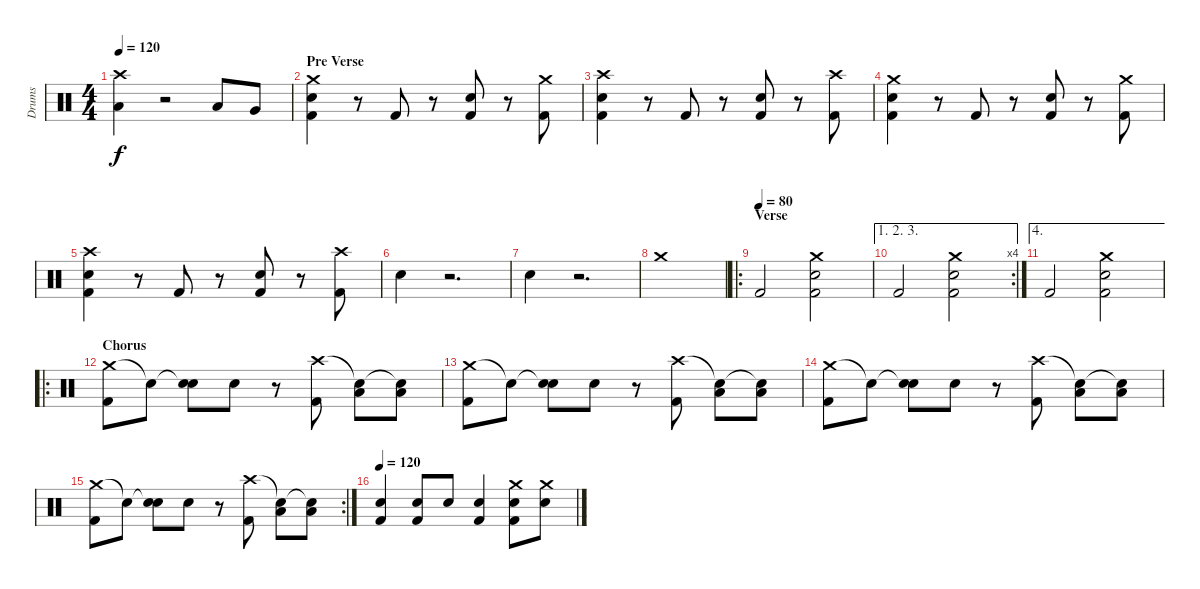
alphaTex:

\track ("Drums" "Drums") {instrument percussion}
\staff {score}
\articulation defaults
\ts (4 4)
\tempo 120
\clef neutral
\ks c
("Crash high (hit)" "Low Floor Tom (hit)").4{dy f} r.2 "Low Tom (hit)".8 "Very Low Tom (hit)".8 |
\section ("" "Pre Verse")
("Crash medium (hit)" "Snare (hit) 2" "Kick (hit) 2").4 r.8 "Kick (hit) 2".8 r.8 ("Snare (hit) 2" "Kick (hit) 2").8 r.8 ("Crash medium (hit)" "Kick (hit) 2").8 |
("Crash high (hit)" "Snare (hit) 2" "Kick (hit) 2").4 r.8 "Kick (hit) 2".8 r.8 ("Snare (hit) 2" "Kick (hit) 2").8 r.8 ("Crash high (hit)" "Kick (hit) 2").8 |
("Crash medium (hit)" "Snare (hit) 2" "Kick (hit) 2").4 r.8 "Kick (hit) 2".8 r.8 ("Snare (hit) 2" "Kick (hit) 2").8 r.8 ("Crash medium (hit)" "Kick (hit) 2").8 |
("Crash high (hit)" "Snare (hit) 2" "Kick (hit) 2").4 r.8 "Kick (hit) 2".8 r.8 ("Snare (hit) 2" "Kick (hit) 2").8 r.8 ("Crash high (hit)" "Kick (hit) 2").8 |
"Snare (hit) 2".4 r.2{d} |
"Snare (hit) 2".4 r.2{d} |
"Crash medium (hit)".1 |
\ro
\section ("" "Verse")
\tempo (80)
"Kick (hit) 2".2 ("Crash medium (hit)" "Snare (hit) 2" "Kick (hit) 2").2 |
\ae (1 2 3)
\rc 4 "Kick (hit) 2".2
("Crash medium (hit)" "Snare (hit) 2" "Kick (hit) 2").2 |
\ae 4 "Kick (hit) 2".2
("Crash medium (hit)" "Snare (hit) 2" "Kick (hit) 2").2 |
\ro
\section ("" "Chorus")
("Crash medium (hit)" "Kick (hit) 2").8 "Snare (hit)"{t}.8 ("Snare (hit)"{t} "Snare (hit) 2").8 "Snare (hit) 2".8 r.8 ("Crash high (hit)" "Kick (hit) 2").8 ("Snare (hit)"{t} "Low Floor Tom (hit)").8 ("Snare (hit)"{t} "Low Tom (hit)").8 |
("Crash medium (hit)" "Kick (hit) 2").8 "Snare (hit)"{t}.8 ("Snare (hit)"{t} "Snare (hit) 2").8 "Snare (hit) 2".8 r.8 ("Crash high (hit)" "Kick (hit) 2").8 ("Snare (hit)"{t} "Low Floor Tom (hit)").8 ("Snare (hit)"{t} "Low Tom (hit)").8 |
("Crash medium (hit)" "Kick (hit) 2").8 "Snare (hit)"{t}.8 ("Snare (hit)"{t} "Snare (hit) 2").8 "Snare (hit) 2".8 r.8 ("Crash high (hit)" "Kick (hit) 2").8 ("Snare (hit)"{t} "Low Floor Tom (hit)").8 ("Snare (hit)"{t} "Low Tom (hit)").8 |
\rc 2
("Crash medium (hit)" "Kick (hit) 2").8 "Snare (hit)"{t}.8 ("Snare (hit)"{t} "Snare (hit) 2").8 "Snare (hit) 2".8 r.8 ("Crash high (hit)" "Kick (hit) 2").8 ("Snare (hit)"{t} "Low Floor Tom (hit)").8 ("Snare (hit)"{t} "Low Tom (hit)").8 |
\tempo 120
("Snare (hit) 2" "Kick (hit) 2").4 ("Snare (hit) 2" "Kick (hit) 2").8 "Snare (hit) 2".8 ("Snare (hit) 2" "Kick (hit) 2").4 ("Crash medium (hit)" "Snare (hit) 2" "Kick (hit) 2").8 ("Crash medium (hit)" "Snare (hit) 2").8
